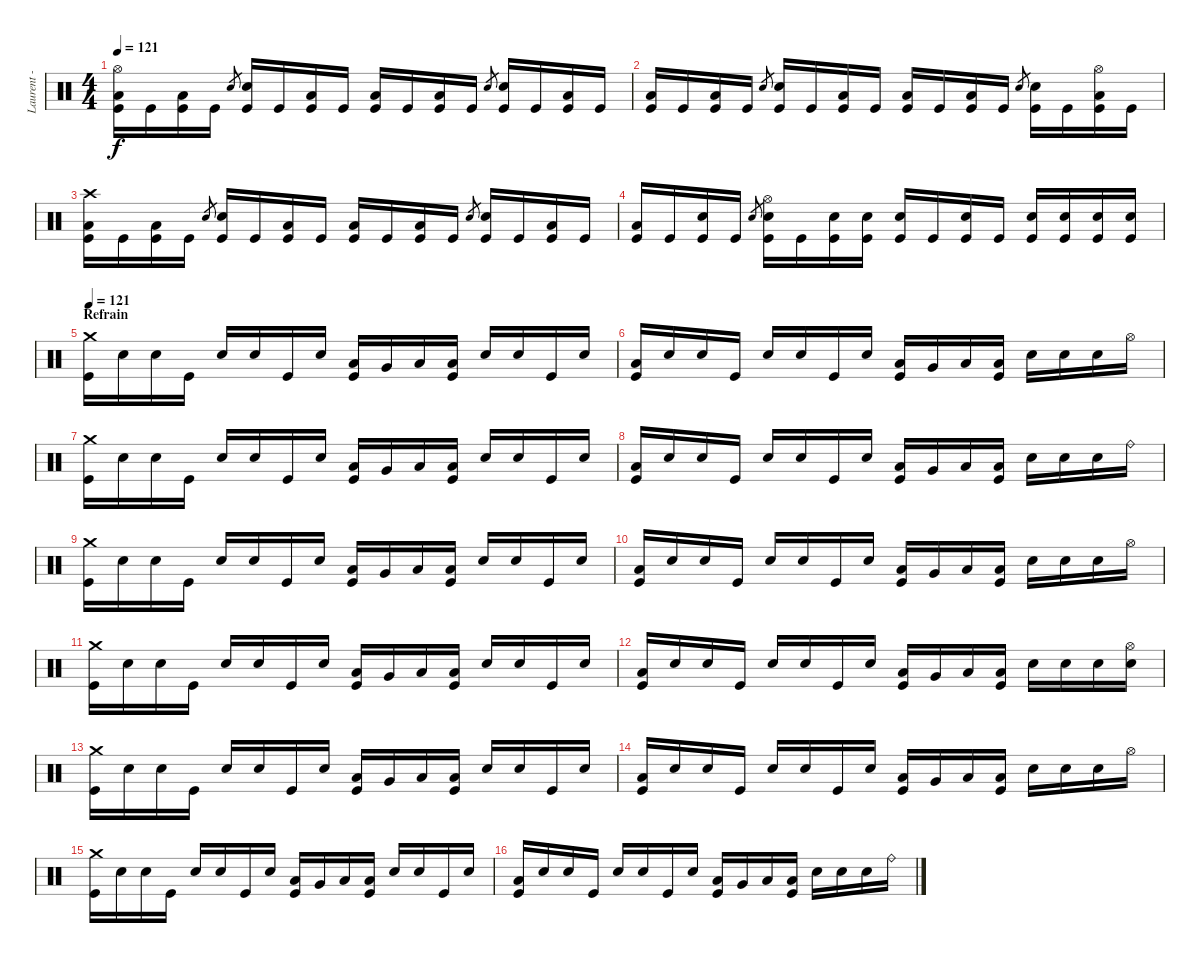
\track ("Laurent - Batterie" "Laurent - ") {instrument percussion}
\staff {score}
\articulation defaults
\ts (4 4)
\tempo 121
\clef neutral
\ks c
("Hi-Hat (open)" "Low Floor Tom (hit)" "Kick (hit)").16{dy f} "Kick (hit)".16 ("Low Floor Tom (hit)" "Kick (hit)").16 "Kick (hit)".16 "Electric Snare (hit)".8{gr} ("Electric Snare (hit)" "Kick (hit)").16 "Kick (hit)".16 ("Low Floor Tom (hit)" "Kick (hit)").16 "Kick (hit)".16 ("Low Floor Tom (hit)" "Kick (hit)").16 "Kick (hit)".16 ("Low Floor Tom (hit)" "Kick (hit)").16 "Kick (hit)".16 "Electric Snare (hit)".8{gr} ("Electric Snare (hit)" "Kick (hit)").16 "Kick (hit)".16 ("Low Floor Tom (hit)" "Kick (hit)").16 "Kick (hit)".16 |
("Low Floor Tom (hit)" "Kick (hit)").16 "Kick (hit)".16 ("Low Floor Tom (hit)" "Kick (hit)").16 "Kick (hit)".16 "Electric Snare (hit)".8{gr} ("Electric Snare (hit)" "Kick (hit)").16 "Kick (hit)".16 ("Low Floor Tom (hit)" "Kick (hit)").16 "Kick (hit)".16 ("Low Floor Tom (hit)" "Kick (hit)").16 "Kick (hit)".16 ("Low Floor Tom (hit)" "Kick (hit)").16 "Kick (hit)".16 "Electric Snare (hit)".8{gr} ("Electric Snare (hit)" "Kick (hit)").16 "Kick (hit)".16 ("Hi-Hat (open)" "Low Floor Tom (hit)" "Kick (hit)").16 "Kick (hit)".16 |
("Crash high (hit)" "Low Floor Tom (hit)" "Kick (hit)").16 "Kick (hit)".16 ("Low Floor Tom (hit)" "Kick (hit)").16 "Kick (hit)".16 "Electric Snare (hit)".8{gr} ("Electric Snare (hit)" "Kick (hit)").16 "Kick (hit)".16 ("Low Floor Tom (hit)" "Kick (hit)").16 "Kick (hit)".16 ("Low Floor Tom (hit)" "Kick (hit)").16 "Kick (hit)".16 ("Low Floor Tom (hit)" "Kick (hit)").16 "Kick (hit)".16 "Electric Snare (hit)".8{gr} ("Electric Snare (hit)" "Kick (hit)").16 "Kick (hit)".16 ("Low Floor Tom (hit)" "Kick (hit)").16 "Kick (hit)".16 |
("Low Floor Tom (hit)" "Kick (hit)").16 "Kick (hit)".16 ("Electric Snare (hit)" "Kick (hit)").16 "Kick (hit)".16 "Electric Snare (hit)".8{gr} ("Hi-Hat (open)" "Electric Snare (hit)" "Kick (hit)").16 "Kick (hit)".16 ("Electric Snare (hit)" "Kick (hit)").16 ("Electric Snare (hit)" "Kick (hit)").16 ("Electric Snare (hit)" "Kick (hit)").16 "Kick (hit)".16 ("Electric Snare (hit)" "Kick (hit)").16 "Kick (hit)".16 ("Electric Snare (hit)" "Kick (hit)").16 ("Electric Snare (hit)" "Kick (hit)").16 ("Electric Snare (hit)" "Kick (hit)").16 ("Electric Snare (hit)" "Kick (hit)").16 |
\section ("" "Refrain")
\tempo 121
("Crash medium (hit)" "Kick (hit)").16{volume 16 balance 8} "Snare (hit)".16 "Snare (hit)".16 "Kick (hit)".16 "Electric Snare (hit)".16 "Snare (hit)".16 "Kick (hit)".16 "Snare (hit)".16 ("Low Tom (hit)" "Kick (hit)").16 "Very Low Tom (hit)".16 "Low Floor Tom (hit)".16 ("Low Floor Tom (hit)" "Kick (hit)").16 "Electric Snare (hit)".16 "Snare (hit)".16 "Kick (hit)".16 "Snare (hit)".16 |
("Low Floor Tom (hit)" "Kick (hit)").16 "Snare (hit)".16 "Snare (hit)".16 "Kick (hit)".16 "Electric Snare (hit)".16 "Snare (hit)".16 "Kick (hit)".16 "Snare (hit)".16 ("Low Tom (hit)" "Kick (hit)").16 "Very Low Tom (hit)".16 "Low Floor Tom (hit)".16 ("Low Floor Tom (hit)" "Kick (hit)").16 "Electric Snare (hit)".16 "Snare (hit)".16 "Snare (hit)".16 "Hi-Hat (open)".16 |
("Crash medium (hit)" "Kick (hit)").16 "Snare (hit)".16 "Snare (hit)".16 "Kick (hit)".16 "Electric Snare (hit)".16 "Snare (hit)".16 "Kick (hit)".16 "Snare (hit)".16 ("Low Tom (hit)" "Kick (hit)").16 "Very Low Tom (hit)".16 "Low Floor Tom (hit)".16 ("Low Floor Tom (hit)" "Kick (hit)").16 "Electric Snare (hit)".16 "Snare (hit)".16 "Kick (hit)".16 "Snare (hit)".16 |
("Low Floor Tom (hit)" "Kick (hit)").16 "Snare (hit)".16 "Snare (hit)".16 "Kick (hit)".16 "Electric Snare (hit)".16 "Snare (hit)".16 "Kick (hit)".16 "Snare (hit)".16 ("Low Tom (hit)" "Kick (hit)").16 "Very Low Tom (hit)".16 "Low Floor Tom (hit)".16 ("Low Floor Tom (hit)" "Kick (hit)").16 "Electric Snare (hit)".16 "Snare (hit)".16 "Snare (hit)".16 "Ride (bell)".16 |
("Crash medium (hit)" "Kick (hit)").16 "Snare (hit)".16 "Snare (hit)".16 "Kick (hit)".16 "Electric Snare (hit)".16 "Snare (hit)".16 "Kick (hit)".16 "Snare (hit)".16 ("Low Tom (hit)" "Kick (hit)").16 "Very Low Tom (hit)".16 "Low Floor Tom (hit)".16 ("Low Floor Tom (hit)" "Kick (hit)").16 "Electric Snare (hit)".16 "Snare (hit)".16 "Kick (hit)".16 "Snare (hit)".16 |
("Low Floor Tom (hit)" "Kick (hit)").16 "Snare (hit)".16 "Snare (hit)".16 "Kick (hit)".16 "Electric Snare (hit)".16 "Snare (hit)".16 "Kick (hit)".16 "Snare (hit)".16 ("Low Tom (hit)" "Kick (hit)").16 "Very Low Tom (hit)".16 "Low Floor Tom (hit)".16 ("Low Floor Tom (hit)" "Kick (hit)").16 "Electric Snare (hit)".16 "Snare (hit)".16 "Snare (hit)".16 "Hi-Hat (open)".16 |
("Crash medium (hit)" "Kick (hit)").16 "Snare (hit)".16 "Snare (hit)".16 "Kick (hit)".16 "Electric Snare (hit)".16 "Snare (hit)".16 "Kick (hit)".16 "Snare (hit)".16 ("Low Tom (hit)" "Kick (hit)").16 "Very Low Tom (hit)".16 "Low Floor Tom (hit)".16 ("Low Floor Tom (hit)" "Kick (hit)").16 "Electric Snare (hit)".16 "Snare (hit)".16 "Kick (hit)".16 "Snare (hit)".16 |
("Low Floor Tom (hit)" "Kick (hit)").16 "Snare (hit)".16 "Snare (hit)".16 "Kick (hit)".16 "Electric Snare (hit)".16 "Snare (hit)".16 "Kick (hit)".16 "Snare (hit)".16 ("Low Tom (hit)" "Kick (hit)").16 "Very Low Tom (hit)".16 "Low Floor Tom (hit)".16 ("Low Floor Tom (hit)" "Kick (hit)").16 "Electric Snare (hit)".16 "Electric Snare (hit)".16 "Electric Snare (hit)".16 ("Hi-Hat (open)" "Electric Snare (hit)").16 |
\section ("" "")
("Crash medium (hit)" "Kick (hit)").16{volume 16 balance 8} "Snare (hit)".16 "Snare (hit)".16 "Kick (hit)".16 "Electric Snare (hit)".16 "Snare (hit)".16 "Kick (hit)".16 "Snare (hit)".16 ("Low Tom (hit)" "Kick (hit)").16 "Very Low Tom (hit)".16 "Low Floor Tom (hit)".16 ("Low Floor Tom (hit)" "Kick (hit)").16 "Electric Snare (hit)".16 "Snare (hit)".16 "Kick (hit)".16 "Snare (hit)".16 |
("Low Floor Tom (hit)" "Kick (hit)").16 "Snare (hit)".16 "Snare (hit)".16 "Kick (hit)".16 "Electric Snare (hit)".16 "Snare (hit)".16 "Kick (hit)".16 "Snare (hit)".16 ("Low Tom (hit)" "Kick (hit)").16 "Very Low Tom (hit)".16 "Low Floor Tom (hit)".16 ("Low Floor Tom (hit)" "Kick (hit)").16 "Electric Snare (hit)".16 "Snare (hit)".16 "Snare (hit)".16 "Hi-Hat (open)".16 |
("Crash medium (hit)" "Kick (hit)").16 "Snare (hit)".16 "Snare (hit)".16 "Kick (hit)".16 "Electric Snare (hit)".16 "Snare (hit)".16 "Kick (hit)".16 "Snare (hit)".16 ("Low Tom (hit)" "Kick (hit)").16 "Very Low Tom (hit)".16 "Low Floor Tom (hit)".16 ("Low Floor Tom (hit)" "Kick (hit)").16 "Electric Snare (hit)".16 "Snare (hit)".16 "Kick (hit)".16 "Snare (hit)".16 |
("Low Floor Tom (hit)" "Kick (hit)").16 "Snare (hit)".16 "Snare (hit)".16 "Kick (hit)".16 "Electric Snare (hit)".16 "Snare (hit)".16 "Kick (hit)".16 "Snare (hit)".16 ("Low Tom (hit)" "Kick (hit)").16 "Very Low Tom (hit)".16 "Low Floor Tom (hit)".16 ("Low Floor Tom (hit)" "Kick (hit)").16 "Electric Snare (hit)".16 "Snare (hit)".16 "Snare (hit)".16 "Ride (bell)".16
